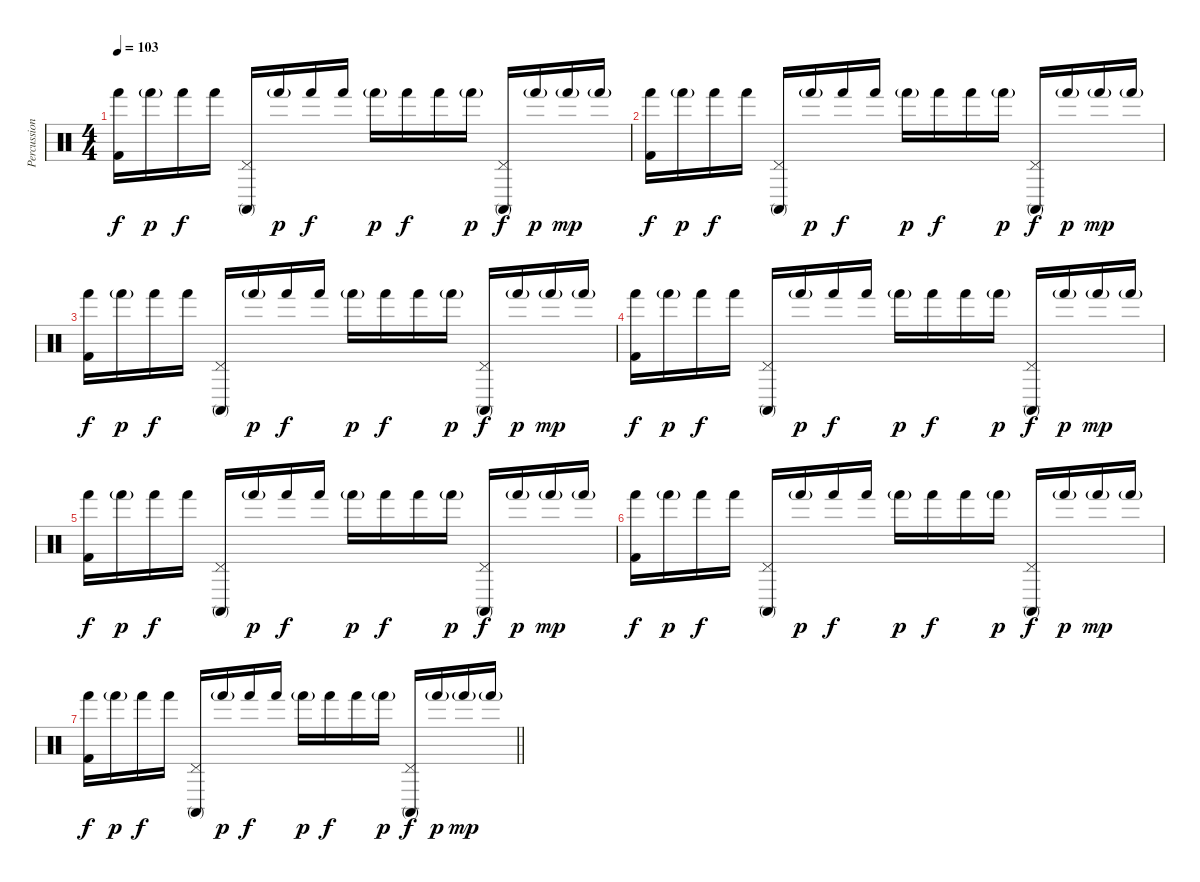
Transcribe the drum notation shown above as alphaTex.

\track ("Percussions" "Percussion") {instrument percussion}
\staff {score}
\articulation defaults
\ts (4 4)
\tempo 103
\clef neutral
\ks c
("Hand (hit)" "Kick (hit) 2").16{dy f} "Hand (hit)"{g}.16{dy p} "Hand (hit)".16{dy f} "Hand (hit)".16 ("Pedal Hi-Hat (hit)" "Conga high (mute)").16 "Hand (hit)"{g}.16{dy p} "Hand (hit)".16{dy f} "Hand (hit)".16 "Hand (hit)"{g}.16{dy p} "Hand (hit)".16{dy f} "Hand (hit)".16 "Hand (hit)"{g}.16{dy p} ("Pedal Hi-Hat (hit)" "Conga high (mute)").16{dy f} "Hand (hit)"{g}.16{dy p} "Hand (hit)"{g}.16{dy mp} "Hand (hit)"{g}.16 |
("Hand (hit)" "Kick (hit) 2").16{dy f} "Hand (hit)"{g}.16{dy p} "Hand (hit)".16{dy f} "Hand (hit)".16 ("Pedal Hi-Hat (hit)" "Conga high (mute)").16 "Hand (hit)"{g}.16{dy p} "Hand (hit)".16{dy f} "Hand (hit)".16 "Hand (hit)"{g}.16{dy p} "Hand (hit)".16{dy f} "Hand (hit)".16 "Hand (hit)"{g}.16{dy p} ("Pedal Hi-Hat (hit)" "Conga high (mute)").16{dy f} "Hand (hit)"{g}.16{dy p} "Hand (hit)"{g}.16{dy mp} "Hand (hit)"{g}.16 |
("Hand (hit)" "Kick (hit) 2").16{dy f} "Hand (hit)"{g}.16{dy p} "Hand (hit)".16{dy f} "Hand (hit)".16 ("Pedal Hi-Hat (hit)" "Conga high (mute)").16 "Hand (hit)"{g}.16{dy p} "Hand (hit)".16{dy f} "Hand (hit)".16 "Hand (hit)"{g}.16{dy p} "Hand (hit)".16{dy f} "Hand (hit)".16 "Hand (hit)"{g}.16{dy p} ("Pedal Hi-Hat (hit)" "Conga high (mute)").16{dy f} "Hand (hit)"{g}.16{dy p} "Hand (hit)"{g}.16{dy mp} "Hand (hit)"{g}.16 |
("Hand (hit)" "Kick (hit) 2").16{dy f} "Hand (hit)"{g}.16{dy p} "Hand (hit)".16{dy f} "Hand (hit)".16 ("Pedal Hi-Hat (hit)" "Conga high (mute)").16 "Hand (hit)"{g}.16{dy p} "Hand (hit)".16{dy f} "Hand (hit)".16 "Hand (hit)"{g}.16{dy p} "Hand (hit)".16{dy f} "Hand (hit)".16 "Hand (hit)"{g}.16{dy p} ("Pedal Hi-Hat (hit)" "Conga high (mute)").16{dy f} "Hand (hit)"{g}.16{dy p} "Hand (hit)"{g}.16{dy mp} "Hand (hit)"{g}.16 |
("Hand (hit)" "Kick (hit) 2").16{dy f} "Hand (hit)"{g}.16{dy p} "Hand (hit)".16{dy f} "Hand (hit)".16 ("Pedal Hi-Hat (hit)" "Conga high (mute)").16 "Hand (hit)"{g}.16{dy p} "Hand (hit)".16{dy f} "Hand (hit)".16 "Hand (hit)"{g}.16{dy p} "Hand (hit)".16{dy f} "Hand (hit)".16 "Hand (hit)"{g}.16{dy p} ("Pedal Hi-Hat (hit)" "Conga high (mute)").16{dy f} "Hand (hit)"{g}.16{dy p} "Hand (hit)"{g}.16{dy mp} "Hand (hit)"{g}.16 |
("Hand (hit)" "Kick (hit) 2").16{dy f} "Hand (hit)"{g}.16{dy p} "Hand (hit)".16{dy f} "Hand (hit)".16 ("Pedal Hi-Hat (hit)" "Conga high (mute)").16 "Hand (hit)"{g}.16{dy p} "Hand (hit)".16{dy f} "Hand (hit)".16 "Hand (hit)"{g}.16{dy p} "Hand (hit)".16{dy f} "Hand (hit)".16 "Hand (hit)"{g}.16{dy p} ("Pedal Hi-Hat (hit)" "Conga high (mute)").16{dy f} "Hand (hit)"{g}.16{dy p} "Hand (hit)"{g}.16{dy mp} "Hand (hit)"{g}.16 |
\barLineRight lightlight
("Hand (hit)" "Kick (hit) 2").16{dy f} "Hand (hit)"{g}.16{dy p} "Hand (hit)".16{dy f} "Hand (hit)".16 ("Pedal Hi-Hat (hit)" "Conga high (mute)").16 "Hand (hit)"{g}.16{dy p} "Hand (hit)".16{dy f} "Hand (hit)".16 "Hand (hit)"{g}.16{dy p} "Hand (hit)".16{dy f} "Hand (hit)".16 "Hand (hit)"{g}.16{dy p} ("Pedal Hi-Hat (hit)" "Conga high (mute)").16{dy f} "Hand (hit)"{g}.16{dy p} "Hand (hit)"{g}.16{dy mp} "Hand (hit)"{g}.16
